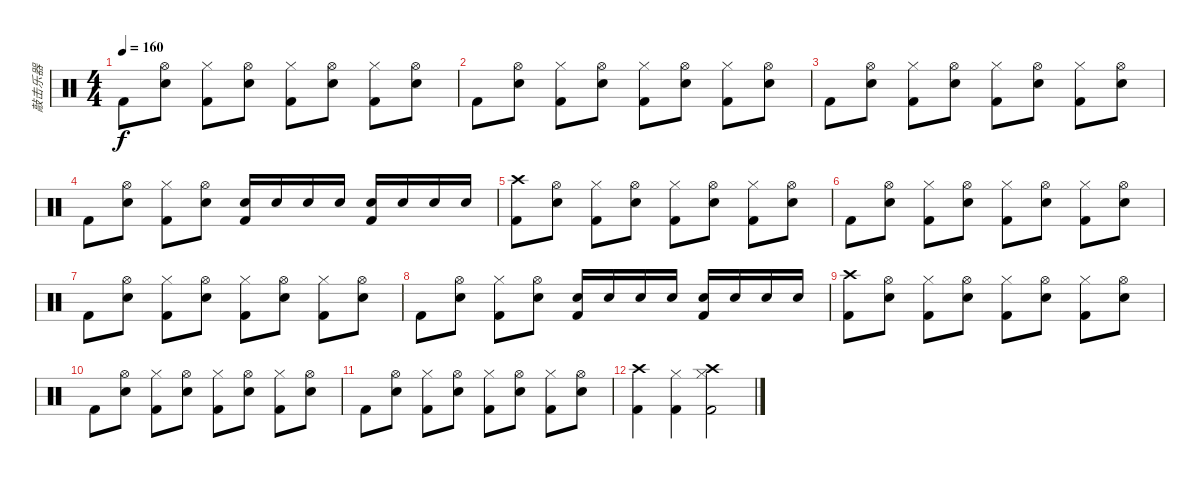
\track ("敲击乐器" "敲击乐器") {instrument percussion}
\staff {score}
\articulation defaults
\ts (4 4)
\tempo 160
\clef neutral
\ks c "Kick (hit) 2".8{dy f}
("Hi-Hat (open)" "Electric Snare (hit)").8 ("Hi-Hat (closed)" "Kick (hit) 2").8 ("Hi-Hat (open)" "Electric Snare (hit)").8 ("Hi-Hat (closed)" "Kick (hit) 2").8 ("Hi-Hat (open)" "Electric Snare (hit)").8 ("Hi-Hat (closed)" "Kick (hit) 2").8 ("Hi-Hat (open)" "Electric Snare (hit)").8 |
"Kick (hit) 2".8 ("Hi-Hat (open)" "Electric Snare (hit)").8 ("Hi-Hat (closed)" "Kick (hit) 2").8 ("Hi-Hat (open)" "Electric Snare (hit)").8 ("Hi-Hat (closed)" "Kick (hit) 2").8 ("Hi-Hat (open)" "Electric Snare (hit)").8 ("Hi-Hat (closed)" "Kick (hit) 2").8 ("Hi-Hat (open)" "Electric Snare (hit)").8 |
"Kick (hit) 2".8 ("Hi-Hat (open)" "Electric Snare (hit)").8 ("Hi-Hat (closed)" "Kick (hit) 2").8 ("Hi-Hat (open)" "Electric Snare (hit)").8 ("Hi-Hat (closed)" "Kick (hit) 2").8 ("Hi-Hat (open)" "Electric Snare (hit)").8 ("Hi-Hat (closed)" "Kick (hit) 2").8 ("Hi-Hat (open)" "Electric Snare (hit)").8 |
"Kick (hit) 2".8 ("Hi-Hat (open)" "Electric Snare (hit)").8 ("Hi-Hat (closed)" "Kick (hit) 2").8 ("Hi-Hat (open)" "Electric Snare (hit)").8 ("Electric Snare (hit)" "Kick (hit) 2").16 "Electric Snare (hit)".16 "Electric Snare (hit)".16 "Electric Snare (hit)".16 ("Electric Snare (hit)" "Kick (hit) 2").16 "Electric Snare (hit)".16 "Electric Snare (hit)".16 "Electric Snare (hit)".16 |
("Crash high (hit)" "Kick (hit) 2").8 ("Hi-Hat (open)" "Electric Snare (hit)").8 ("Hi-Hat (closed)" "Kick (hit) 2").8 ("Hi-Hat (open)" "Electric Snare (hit)").8 ("Hi-Hat (closed)" "Kick (hit) 2").8 ("Hi-Hat (open)" "Electric Snare (hit)").8 ("Hi-Hat (closed)" "Kick (hit) 2").8 ("Hi-Hat (open)" "Electric Snare (hit)").8 |
"Kick (hit) 2".8 ("Hi-Hat (open)" "Electric Snare (hit)").8 ("Hi-Hat (closed)" "Kick (hit) 2").8 ("Hi-Hat (open)" "Electric Snare (hit)").8 ("Hi-Hat (closed)" "Kick (hit) 2").8 ("Hi-Hat (open)" "Electric Snare (hit)").8 ("Hi-Hat (closed)" "Kick (hit) 2").8 ("Hi-Hat (open)" "Electric Snare (hit)").8 |
"Kick (hit) 2".8 ("Hi-Hat (open)" "Electric Snare (hit)").8 ("Hi-Hat (closed)" "Kick (hit) 2").8 ("Hi-Hat (open)" "Electric Snare (hit)").8 ("Hi-Hat (closed)" "Kick (hit) 2").8 ("Hi-Hat (open)" "Electric Snare (hit)").8 ("Hi-Hat (closed)" "Kick (hit) 2").8 ("Hi-Hat (open)" "Electric Snare (hit)").8 |
"Kick (hit) 2".8 ("Hi-Hat (open)" "Electric Snare (hit)").8 ("Hi-Hat (closed)" "Kick (hit) 2").8 ("Hi-Hat (open)" "Electric Snare (hit)").8 ("Electric Snare (hit)" "Kick (hit) 2").16 "Electric Snare (hit)".16 "Electric Snare (hit)".16 "Electric Snare (hit)".16 ("Electric Snare (hit)" "Kick (hit) 2").16 "Electric Snare (hit)".16 "Electric Snare (hit)".16 "Electric Snare (hit)".16 |
("Crash high (hit)" "Kick (hit) 2").8 ("Hi-Hat (open)" "Electric Snare (hit)").8 ("Hi-Hat (closed)" "Kick (hit) 2").8 ("Hi-Hat (open)" "Electric Snare (hit)").8 ("Hi-Hat (closed)" "Kick (hit) 2").8 ("Hi-Hat (open)" "Electric Snare (hit)").8 ("Hi-Hat (closed)" "Kick (hit) 2").8 ("Hi-Hat (open)" "Electric Snare (hit)").8 |
"Kick (hit) 2".8 ("Hi-Hat (open)" "Electric Snare (hit)").8 ("Hi-Hat (closed)" "Kick (hit) 2").8 ("Hi-Hat (open)" "Electric Snare (hit)").8 ("Hi-Hat (closed)" "Kick (hit) 2").8 ("Hi-Hat (open)" "Electric Snare (hit)").8 ("Hi-Hat (closed)" "Kick (hit) 2").8 ("Hi-Hat (open)" "Electric Snare (hit)").8 |
"Kick (hit) 2".8 ("Hi-Hat (open)" "Electric Snare (hit)").8 ("Hi-Hat (closed)" "Kick (hit) 2").8 ("Hi-Hat (open)" "Electric Snare (hit)").8 ("Hi-Hat (closed)" "Kick (hit) 2").8 ("Hi-Hat (open)" "Electric Snare (hit)").8 ("Hi-Hat (closed)" "Kick (hit) 2").8 ("Hi-Hat (open)" "Electric Snare (hit)").8 |
("Crash high (hit)" "Kick (hit) 2").4 ("Hi-Hat (closed)" "Kick (hit) 2").4 ("Crash high (hit)" "Hi-Hat (closed)" "Kick (hit) 2").2
